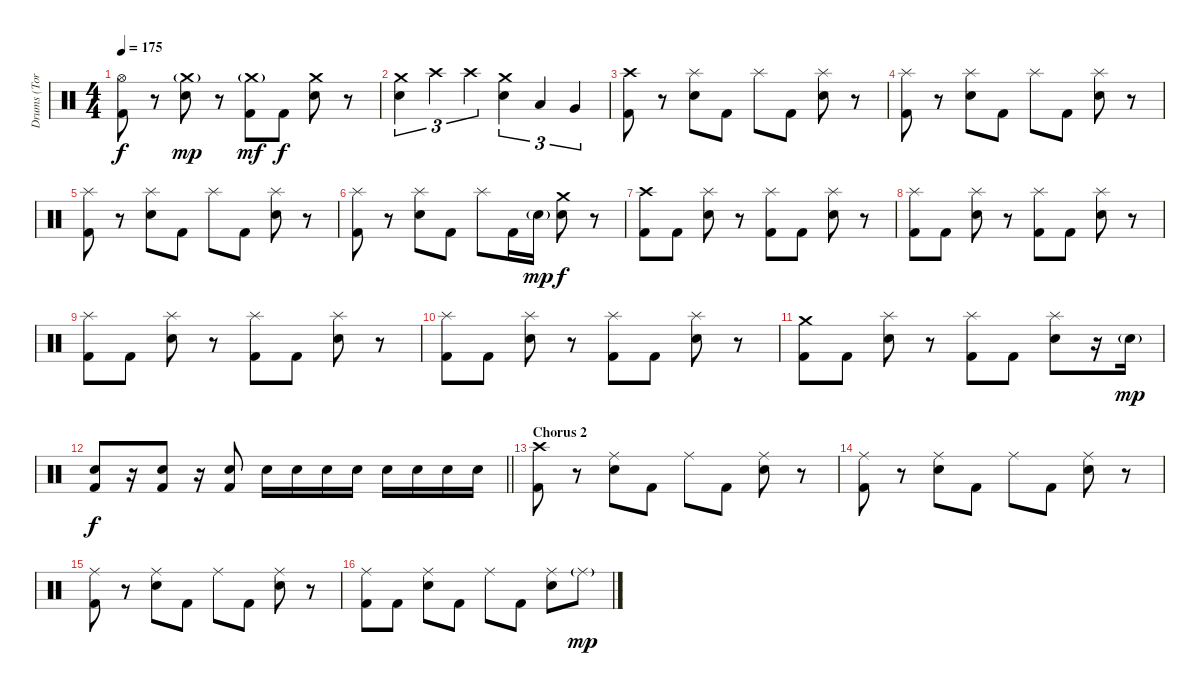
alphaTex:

\track ("Drums (Tora)" "Drums (Tor") {instrument percussion}
\staff {score}
\articulation defaults
\ts (4 4)
\tempo 175
\clef neutral
\ks c
("Hi-Hat (open)" "Kick (hit) 2").8{dy f} r.8 ("Crash medium (hit)"{g} "Electric Snare (hit)").8{dy mp} r.8 ("Crash medium (hit)"{g} "Kick (hit) 2").8{dy mf} "Kick (hit) 2".8{dy f} ("Crash medium (hit)" "Electric Snare (hit)").8 r.8 |
("Crash medium (hit)" "Electric Snare (hit)").4{tu (3 2)} "Crash high (hit)".4{tu (3 2)} "Crash high (hit)".4{tu (3 2)} ("Crash medium (hit)" "Electric Snare (hit)").4{tu (3 2)} "Low Tom (hit)".4{tu (3 2)} "Very Low Tom (hit)".4{tu (3 2)} |
("Crash high (hit)" "Kick (hit) 2").8 r.8 ("Splash (hit)" "Electric Snare (hit)").8 "Kick (hit) 2".8 "Splash (hit)".8 "Kick (hit) 2".8 ("Splash (hit)" "Electric Snare (hit)").8 r.8 |
("Splash (hit)" "Kick (hit) 2").8 r.8 ("Splash (hit)" "Electric Snare (hit)").8 "Kick (hit) 2".8 "Splash (hit)".8 "Kick (hit) 2".8 ("Splash (hit)" "Electric Snare (hit)").8 r.8 |
("Splash (hit)" "Kick (hit) 2").8 r.8 ("Splash (hit)" "Electric Snare (hit)").8 "Kick (hit) 2".8 "Splash (hit)".8 "Kick (hit) 2".8 ("Splash (hit)" "Electric Snare (hit)").8 r.8 |
("Splash (hit)" "Kick (hit) 2").8 r.8 ("Splash (hit)" "Electric Snare (hit)").8 "Kick (hit) 2".8 "Splash (hit)".8 "Kick (hit) 2".16 "Electric Snare (hit)"{g}.16{dy mp} ("Crash medium (hit)" "Electric Snare (hit)").8{dy f} r.8 |
("Crash high (hit)" "Kick (hit) 2").8 "Kick (hit) 2".8 ("Splash (hit)" "Electric Snare (hit)").8 r.8 ("Splash (hit)" "Kick (hit) 2").8 "Kick (hit) 2".8 ("Splash (hit)" "Electric Snare (hit)").8 r.8 |
("Splash (hit)" "Kick (hit) 2").8 "Kick (hit) 2".8 ("Splash (hit)" "Electric Snare (hit)").8 r.8 ("Splash (hit)" "Kick (hit) 2").8 "Kick (hit) 2".8 ("Splash (hit)" "Electric Snare (hit)").8 r.8 |
("Splash (hit)" "Kick (hit) 2").8 "Kick (hit) 2".8 ("Splash (hit)" "Electric Snare (hit)").8 r.8 ("Splash (hit)" "Kick (hit) 2").8 "Kick (hit) 2".8 ("Splash (hit)" "Electric Snare (hit)").8 r.8 |
("Splash (hit)" "Kick (hit) 2").8 "Kick (hit) 2".8 ("Splash (hit)" "Electric Snare (hit)").8 r.8 ("Splash (hit)" "Kick (hit) 2").8 "Kick (hit) 2".8 ("Splash (hit)" "Electric Snare (hit)").8 r.8 |
("Crash medium (hit)" "Kick (hit) 2").8 "Kick (hit) 2".8 ("Splash (hit)" "Electric Snare (hit)").8 r.8 ("Splash (hit)" "Kick (hit) 2").8 "Kick (hit) 2".8 ("Splash (hit)" "Electric Snare (hit)").8 r.16 "Electric Snare (hit)"{g}.16{dy mp} |
\barLineRight lightlight
("Electric Snare (hit)" "Kick (hit) 2").8{dy f} r.16 ("Electric Snare (hit)" "Kick (hit) 2").8 r.16 ("Electric Snare (hit)" "Kick (hit) 2").8 "Electric Snare (hit)".16 "Electric Snare (hit)".16 "Electric Snare (hit)".16 "Electric Snare (hit)".16 "Electric Snare (hit)".16 "Electric Snare (hit)".16 "Electric Snare (hit)".16 "Electric Snare (hit)".16 |
\section ("" "Chorus 2")
("Crash high (hit)" "Kick (hit) 2").8 r.8 ("Ride (middle)" "Electric Snare (hit)").8 "Kick (hit) 2".8 "Ride (middle)".8 "Kick (hit) 2".8 ("Ride (middle)" "Electric Snare (hit)").8 r.8 |
("Ride (middle)" "Kick (hit) 2").8 r.8 ("Ride (middle)" "Electric Snare (hit)").8 "Kick (hit) 2".8 "Ride (middle)".8 "Kick (hit) 2".8 ("Ride (middle)" "Electric Snare (hit)").8 r.8 |
("Ride (middle)" "Kick (hit) 2").8 r.8 ("Ride (middle)" "Electric Snare (hit)").8 "Kick (hit) 2".8 "Ride (middle)".8 "Kick (hit) 2".8 ("Ride (middle)" "Electric Snare (hit)").8 r.8 |
("Ride (middle)" "Kick (hit) 2").8 "Kick (hit) 2".8 ("Ride (middle)" "Electric Snare (hit)").8 "Kick (hit) 2".8 "Ride (middle)".8 "Kick (hit) 2".8 ("Ride (middle)" "Electric Snare (hit)").8 "Ride (middle)"{g}.8{dy mp}
